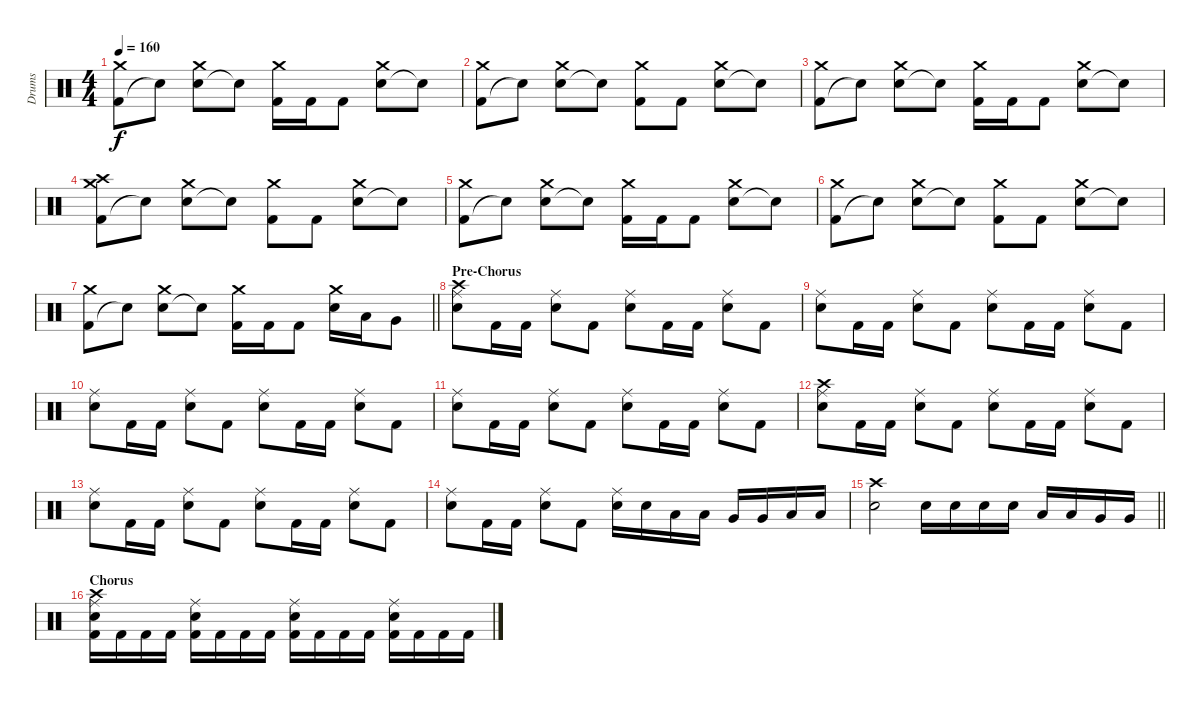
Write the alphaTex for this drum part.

\track ("Drums" "Drums") {instrument percussion}
\staff {score}
\articulation defaults
\ts (4 4)
\tempo 160
\clef neutral
\ks c
("Kick (hit) 2" "Crash medium (hit)").8{dy f} "Snare (hit)"{t}.8 ("Snare (hit) 2" "Crash medium (hit)").8 "Snare (hit)"{t}.8 ("Kick (hit) 2" "Crash medium (hit)").16 "Kick (hit) 2".16 "Kick (hit) 2".8 ("Snare (hit) 2" "Crash medium (hit)").8 "Snare (hit)"{t}.8 |
("Kick (hit) 2" "Crash medium (hit)").8 "Snare (hit)"{t}.8 ("Snare (hit) 2" "Crash medium (hit)").8 "Snare (hit)"{t}.8 ("Kick (hit) 2" "Crash medium (hit)").8 "Kick (hit) 2".8 ("Snare (hit) 2" "Crash medium (hit)").8 "Snare (hit)"{t}.8 |
("Kick (hit) 2" "Crash medium (hit)").8 "Snare (hit)"{t}.8 ("Snare (hit) 2" "Crash medium (hit)").8 "Snare (hit)"{t}.8 ("Kick (hit) 2" "Crash medium (hit)").16 "Kick (hit) 2".16 "Kick (hit) 2".8 ("Snare (hit) 2" "Crash medium (hit)").8 "Snare (hit)"{t}.8 |
("Kick (hit) 2" "Crash medium (hit)" "Crash high (hit)").8 "Snare (hit)"{t}.8 ("Snare (hit) 2" "Crash medium (hit)").8 "Snare (hit)"{t}.8 ("Kick (hit) 2" "Crash medium (hit)").8 "Kick (hit) 2".8 ("Snare (hit) 2" "Crash medium (hit)").8 "Snare (hit)"{t}.8 |
("Kick (hit) 2" "Crash medium (hit)").8 "Snare (hit)"{t}.8 ("Snare (hit) 2" "Crash medium (hit)").8 "Snare (hit)"{t}.8 ("Kick (hit) 2" "Crash medium (hit)").16 "Kick (hit) 2".16 "Kick (hit) 2".8 ("Snare (hit) 2" "Crash medium (hit)").8 "Snare (hit)"{t}.8 |
("Kick (hit) 2" "Crash medium (hit)").8 "Snare (hit)"{t}.8 ("Snare (hit) 2" "Crash medium (hit)").8 "Snare (hit)"{t}.8 ("Kick (hit) 2" "Crash medium (hit)").8 "Kick (hit) 2".8 ("Snare (hit) 2" "Crash medium (hit)").8 "Snare (hit)"{t}.8 |
\barLineRight lightlight
("Kick (hit) 2" "Crash medium (hit)").8 "Snare (hit)"{t}.8 ("Snare (hit) 2" "Crash medium (hit)").8 "Snare (hit)"{t}.8 ("Kick (hit) 2" "Crash medium (hit)").16 "Kick (hit) 2".16 "Kick (hit) 2".8 ("Snare (hit) 2" "Crash medium (hit)").16 "Low Tom (hit)".16 "Very Low Tom (hit)".8 |
\section ("" "Pre-Chorus")
("Snare (hit) 2" "Ride (middle)" "Crash high (hit)").8 "Kick (hit) 2".16 "Kick (hit) 2".16 ("Snare (hit) 2" "Ride (middle)").8 "Kick (hit) 2".8 ("Snare (hit) 2" "Ride (middle)").8 "Kick (hit) 2".16 "Kick (hit) 2".16 ("Snare (hit) 2" "Ride (middle)").8 "Kick (hit) 2".8 |
("Snare (hit) 2" "Ride (middle)").8 "Kick (hit) 2".16 "Kick (hit) 2".16 ("Snare (hit) 2" "Ride (middle)").8 "Kick (hit) 2".8 ("Snare (hit) 2" "Ride (middle)").8 "Kick (hit) 2".16 "Kick (hit) 2".16 ("Snare (hit) 2" "Ride (middle)").8 "Kick (hit) 2".8 |
("Snare (hit) 2" "Ride (middle)").8 "Kick (hit) 2".16 "Kick (hit) 2".16 ("Snare (hit) 2" "Ride (middle)").8 "Kick (hit) 2".8 ("Snare (hit) 2" "Ride (middle)").8 "Kick (hit) 2".16 "Kick (hit) 2".16 ("Snare (hit) 2" "Ride (middle)").8 "Kick (hit) 2".8 |
("Snare (hit) 2" "Ride (middle)").8 "Kick (hit) 2".16 "Kick (hit) 2".16 ("Snare (hit) 2" "Ride (middle)").8 "Kick (hit) 2".8 ("Snare (hit) 2" "Ride (middle)").8 "Kick (hit) 2".16 "Kick (hit) 2".16 ("Snare (hit) 2" "Ride (middle)").8 "Kick (hit) 2".8 |
("Snare (hit) 2" "Ride (middle)" "Crash high (hit)").8 "Kick (hit) 2".16 "Kick (hit) 2".16 ("Snare (hit) 2" "Ride (middle)").8 "Kick (hit) 2".8 ("Snare (hit) 2" "Ride (middle)").8 "Kick (hit) 2".16 "Kick (hit) 2".16 ("Snare (hit) 2" "Ride (middle)").8 "Kick (hit) 2".8 |
("Snare (hit) 2" "Ride (middle)").8 "Kick (hit) 2".16 "Kick (hit) 2".16 ("Snare (hit) 2" "Ride (middle)").8 "Kick (hit) 2".8 ("Snare (hit) 2" "Ride (middle)").8 "Kick (hit) 2".16 "Kick (hit) 2".16 ("Snare (hit) 2" "Ride (middle)").8 "Kick (hit) 2".8 |
("Snare (hit) 2" "Ride (middle)").8 "Kick (hit) 2".16 "Kick (hit) 2".16 ("Snare (hit) 2" "Ride (middle)").8 "Kick (hit) 2".8 ("Snare (hit) 2" "Ride (middle)").16 "Snare (hit) 2".16 "Low Tom (hit)".16 "Low Tom (hit)".16 "Very Low Tom (hit)".16 "Very Low Tom (hit)".16 "Low Floor Tom (hit)".16 "Low Floor Tom (hit)".16 |
\barLineRight lightlight
("Snare (hit) 2" "Crash high (hit)").2 "Snare (hit) 2".16 "Snare (hit) 2".16 "Snare (hit) 2".16 "Snare (hit) 2".16 "Low Tom (hit)".16 "Low Tom (hit)".16 "Very Low Tom (hit)".16 "Very Low Tom (hit)".16 |
\section ("" "Chorus")
("Snare (hit) 2" "Kick (hit) 2" "Ride (middle)" "Crash high (hit)").16 "Kick (hit) 2".16 "Kick (hit) 2".16 "Kick (hit) 2".16 ("Snare (hit) 2" "Kick (hit) 2" "Ride (middle)").16 "Kick (hit) 2".16 "Kick (hit) 2".16 "Kick (hit) 2".16 ("Snare (hit) 2" "Kick (hit) 2" "Ride (middle)").16 "Kick (hit) 2".16 "Kick (hit) 2".16 "Kick (hit) 2".16 ("Snare (hit) 2" "Kick (hit) 2" "Ride (middle)").16 "Kick (hit) 2".16 "Kick (hit) 2".16 "Kick (hit) 2".16
